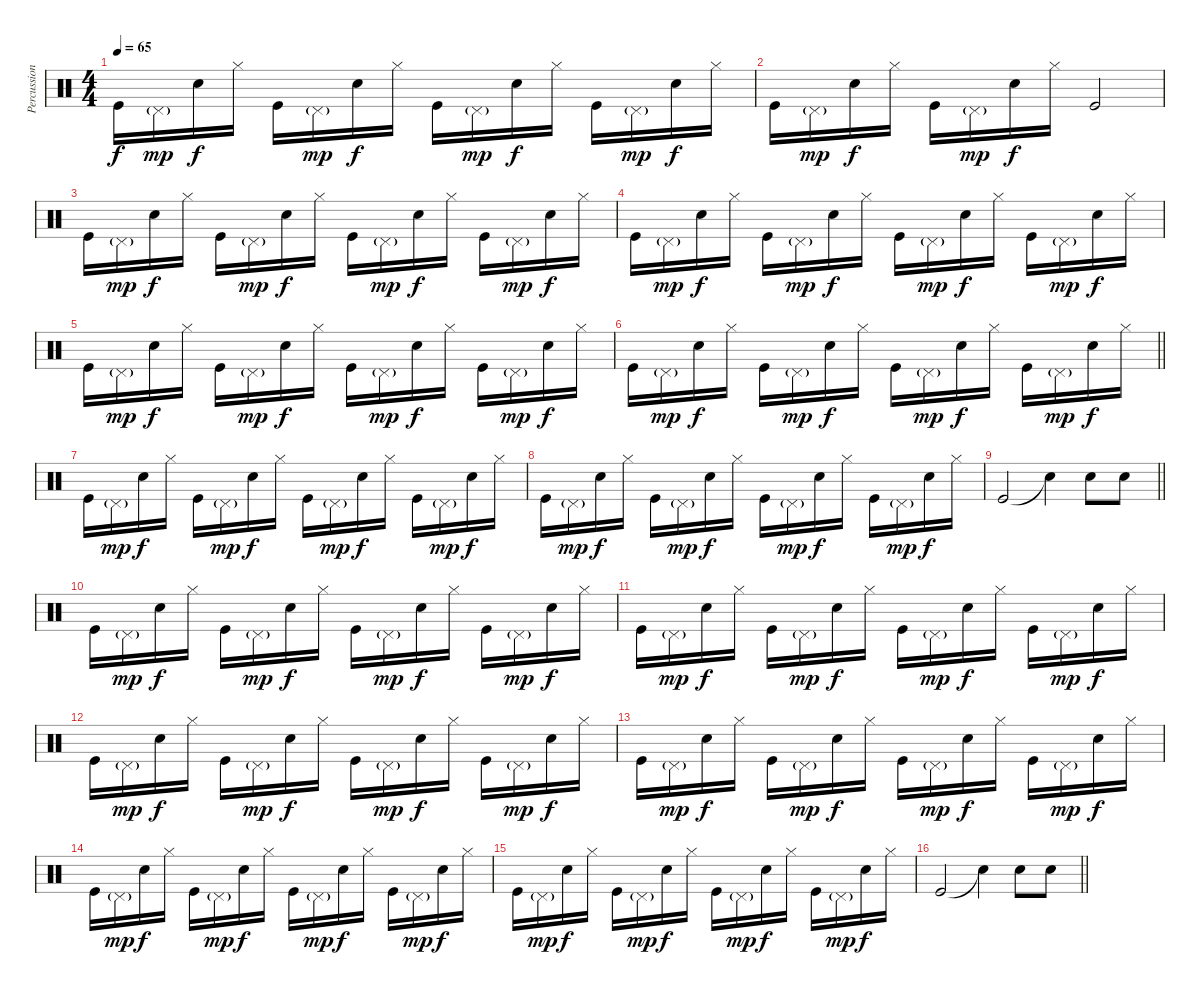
\track ("Percussion" "Percussion") {instrument percussion}
\staff {score}
\articulation defaults
\ts (4 4)
\tempo 65
\clef neutral
\ks c "Kick (hit)".16{dy f} "Pedal Hi-Hat (hit)"{g}.16{dy mp} "Snare (hit) 2".16{dy f} "Hi-Hat (closed)".16 "Kick (hit)".16 "Pedal Hi-Hat (hit)"{g}.16{dy mp} "Snare (hit) 2".16{dy f} "Hi-Hat (closed)".16 "Kick (hit)".16 "Pedal Hi-Hat (hit)"{g}.16{dy mp} "Snare (hit) 2".16{dy f} "Hi-Hat (closed)".16 "Kick (hit)".16 "Pedal Hi-Hat (hit)"{g}.16{dy mp} "Snare (hit) 2".16{dy f} "Hi-Hat (closed)".16
|
"Kick (hit)".16 "Pedal Hi-Hat (hit)"{g}.16{dy mp} "Snare (hit) 2".16{dy f} "Hi-Hat (closed)".16 "Kick (hit)".16 "Pedal Hi-Hat (hit)"{g}.16{dy mp} "Snare (hit) 2".16{dy f} "Hi-Hat (closed)".16 "Kick (hit)".2 |
"Kick (hit)".16 "Pedal Hi-Hat (hit)"{g}.16{dy mp} "Snare (hit) 2".16{dy f} "Hi-Hat (closed)".16 "Kick (hit)".16 "Pedal Hi-Hat (hit)"{g}.16{dy mp} "Snare (hit) 2".16{dy f} "Hi-Hat (closed)".16 "Kick (hit)".16 "Pedal Hi-Hat (hit)"{g}.16{dy mp} "Snare (hit) 2".16{dy f} "Hi-Hat (closed)".16 "Kick (hit)".16 "Pedal Hi-Hat (hit)"{g}.16{dy mp} "Snare (hit) 2".16{dy f} "Hi-Hat (closed)".16 |
"Kick (hit)".16 "Pedal Hi-Hat (hit)"{g}.16{dy mp} "Snare (hit) 2".16{dy f} "Hi-Hat (closed)".16 "Kick (hit)".16 "Pedal Hi-Hat (hit)"{g}.16{dy mp} "Snare (hit) 2".16{dy f} "Hi-Hat (closed)".16 "Kick (hit)".16 "Pedal Hi-Hat (hit)"{g}.16{dy mp} "Snare (hit) 2".16{dy f} "Hi-Hat (closed)".16 "Kick (hit)".16 "Pedal Hi-Hat (hit)"{g}.16{dy mp} "Snare (hit) 2".16{dy f} "Hi-Hat (closed)".16 |
"Kick (hit)".16 "Pedal Hi-Hat (hit)"{g}.16{dy mp} "Snare (hit) 2".16{dy f} "Hi-Hat (closed)".16 "Kick (hit)".16 "Pedal Hi-Hat (hit)"{g}.16{dy mp} "Snare (hit) 2".16{dy f} "Hi-Hat (closed)".16 "Kick (hit)".16 "Pedal Hi-Hat (hit)"{g}.16{dy mp} "Snare (hit) 2".16{dy f} "Hi-Hat (closed)".16 "Kick (hit)".16 "Pedal Hi-Hat (hit)"{g}.16{dy mp} "Snare (hit) 2".16{dy f} "Hi-Hat (closed)".16 |
\barLineRight lightlight "Kick (hit)".16 "Pedal Hi-Hat (hit)"{g}.16{dy mp} "Snare (hit) 2".16{dy f} "Hi-Hat (closed)".16 "Kick (hit)".16 "Pedal Hi-Hat (hit)"{g}.16{dy mp} "Snare (hit) 2".16{dy f} "Hi-Hat (closed)".16 "Kick (hit)".16 "Pedal Hi-Hat (hit)"{g}.16{dy mp} "Snare (hit) 2".16{dy f} "Hi-Hat (closed)".16 "Kick (hit)".16 "Pedal Hi-Hat (hit)"{g}.16{dy mp} "Snare (hit) 2".16{dy f} "Hi-Hat (closed)".16
|
"Kick (hit)".16 "Pedal Hi-Hat (hit)"{g}.16{dy mp} "Snare (hit) 2".16{dy f} "Hi-Hat (closed)".16 "Kick (hit)".16 "Pedal Hi-Hat (hit)"{g}.16{dy mp} "Snare (hit) 2".16{dy f} "Hi-Hat (closed)".16 "Kick (hit)".16 "Pedal Hi-Hat (hit)"{g}.16{dy mp} "Snare (hit) 2".16{dy f} "Hi-Hat (closed)".16 "Kick (hit)".16 "Pedal Hi-Hat (hit)"{g}.16{dy mp} "Snare (hit) 2".16{dy f} "Hi-Hat (closed)".16 |
"Kick (hit)".16 "Pedal Hi-Hat (hit)"{g}.16{dy mp} "Snare (hit) 2".16{dy f} "Hi-Hat (closed)".16 "Kick (hit)".16 "Pedal Hi-Hat (hit)"{g}.16{dy mp} "Snare (hit) 2".16{dy f} "Hi-Hat (closed)".16 "Kick (hit)".16 "Pedal Hi-Hat (hit)"{g}.16{dy mp} "Snare (hit) 2".16{dy f} "Hi-Hat (closed)".16 "Kick (hit)".16 "Pedal Hi-Hat (hit)"{g}.16{dy mp} "Snare (hit) 2".16{dy f} "Hi-Hat (closed)".16 |
\barLineRight lightlight "Kick (hit)".2 "Snare (hit)"{t}.4 "Snare (hit) 2".8 "Snare (hit) 2".8
|
"Kick (hit)".16 "Pedal Hi-Hat (hit)"{g}.16{dy mp} "Snare (hit) 2".16{dy f} "Hi-Hat (closed)".16 "Kick (hit)".16 "Pedal Hi-Hat (hit)"{g}.16{dy mp} "Snare (hit) 2".16{dy f} "Hi-Hat (closed)".16 "Kick (hit)".16 "Pedal Hi-Hat (hit)"{g}.16{dy mp} "Snare (hit) 2".16{dy f} "Hi-Hat (closed)".16 "Kick (hit)".16 "Pedal Hi-Hat (hit)"{g}.16{dy mp} "Snare (hit) 2".16{dy f} "Hi-Hat (closed)".16 |
"Kick (hit)".16 "Pedal Hi-Hat (hit)"{g}.16{dy mp} "Snare (hit) 2".16{dy f} "Hi-Hat (closed)".16 "Kick (hit)".16 "Pedal Hi-Hat (hit)"{g}.16{dy mp} "Snare (hit) 2".16{dy f} "Hi-Hat (closed)".16 "Kick (hit)".16 "Pedal Hi-Hat (hit)"{g}.16{dy mp} "Snare (hit) 2".16{dy f} "Hi-Hat (closed)".16 "Kick (hit)".16 "Pedal Hi-Hat (hit)"{g}.16{dy mp} "Snare (hit) 2".16{dy f} "Hi-Hat (closed)".16 |
"Kick (hit)".16 "Pedal Hi-Hat (hit)"{g}.16{dy mp} "Snare (hit) 2".16{dy f} "Hi-Hat (closed)".16 "Kick (hit)".16 "Pedal Hi-Hat (hit)"{g}.16{dy mp} "Snare (hit) 2".16{dy f} "Hi-Hat (closed)".16 "Kick (hit)".16 "Pedal Hi-Hat (hit)"{g}.16{dy mp} "Snare (hit) 2".16{dy f} "Hi-Hat (closed)".16 "Kick (hit)".16 "Pedal Hi-Hat (hit)"{g}.16{dy mp} "Snare (hit) 2".16{dy f} "Hi-Hat (closed)".16 |
"Kick (hit)".16 "Pedal Hi-Hat (hit)"{g}.16{dy mp} "Snare (hit) 2".16{dy f} "Hi-Hat (closed)".16 "Kick (hit)".16 "Pedal Hi-Hat (hit)"{g}.16{dy mp} "Snare (hit) 2".16{dy f} "Hi-Hat (closed)".16 "Kick (hit)".16 "Pedal Hi-Hat (hit)"{g}.16{dy mp} "Snare (hit) 2".16{dy f} "Hi-Hat (closed)".16 "Kick (hit)".16 "Pedal Hi-Hat (hit)"{g}.16{dy mp} "Snare (hit) 2".16{dy f} "Hi-Hat (closed)".16 |
"Kick (hit)".16 "Pedal Hi-Hat (hit)"{g}.16{dy mp} "Snare (hit) 2".16{dy f} "Hi-Hat (closed)".16 "Kick (hit)".16 "Pedal Hi-Hat (hit)"{g}.16{dy mp} "Snare (hit) 2".16{dy f} "Hi-Hat (closed)".16 "Kick (hit)".16 "Pedal Hi-Hat (hit)"{g}.16{dy mp} "Snare (hit) 2".16{dy f} "Hi-Hat (closed)".16 "Kick (hit)".16 "Pedal Hi-Hat (hit)"{g}.16{dy mp} "Snare (hit) 2".16{dy f} "Hi-Hat (closed)".16 |
"Kick (hit)".16 "Pedal Hi-Hat (hit)"{g}.16{dy mp} "Snare (hit) 2".16{dy f} "Hi-Hat (closed)".16 "Kick (hit)".16 "Pedal Hi-Hat (hit)"{g}.16{dy mp} "Snare (hit) 2".16{dy f} "Hi-Hat (closed)".16 "Kick (hit)".16 "Pedal Hi-Hat (hit)"{g}.16{dy mp} "Snare (hit) 2".16{dy f} "Hi-Hat (closed)".16 "Kick (hit)".16 "Pedal Hi-Hat (hit)"{g}.16{dy mp} "Snare (hit) 2".16{dy f} "Hi-Hat (closed)".16 |
\barLineRight lightlight "Kick (hit)".2 "Snare (hit)"{t}.4 "Snare (hit) 2".8 "Snare (hit) 2".8
